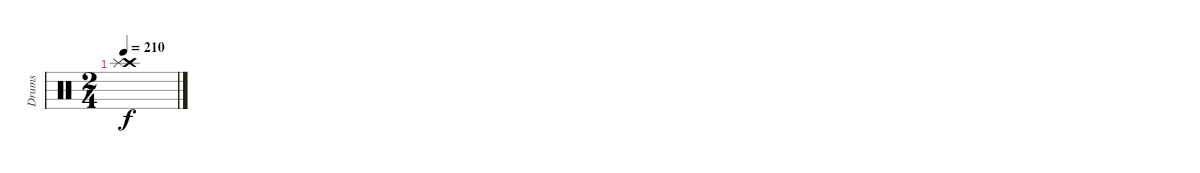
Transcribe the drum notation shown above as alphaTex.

\track ("Drums" "Drums") {instrument percussion}
\staff {score}
\articulation defaults
\ts (2 4)
\tempo 210
\clef neutral
\ks c
("Crash high (hit)" "Splash (hit)").1{dy f}
